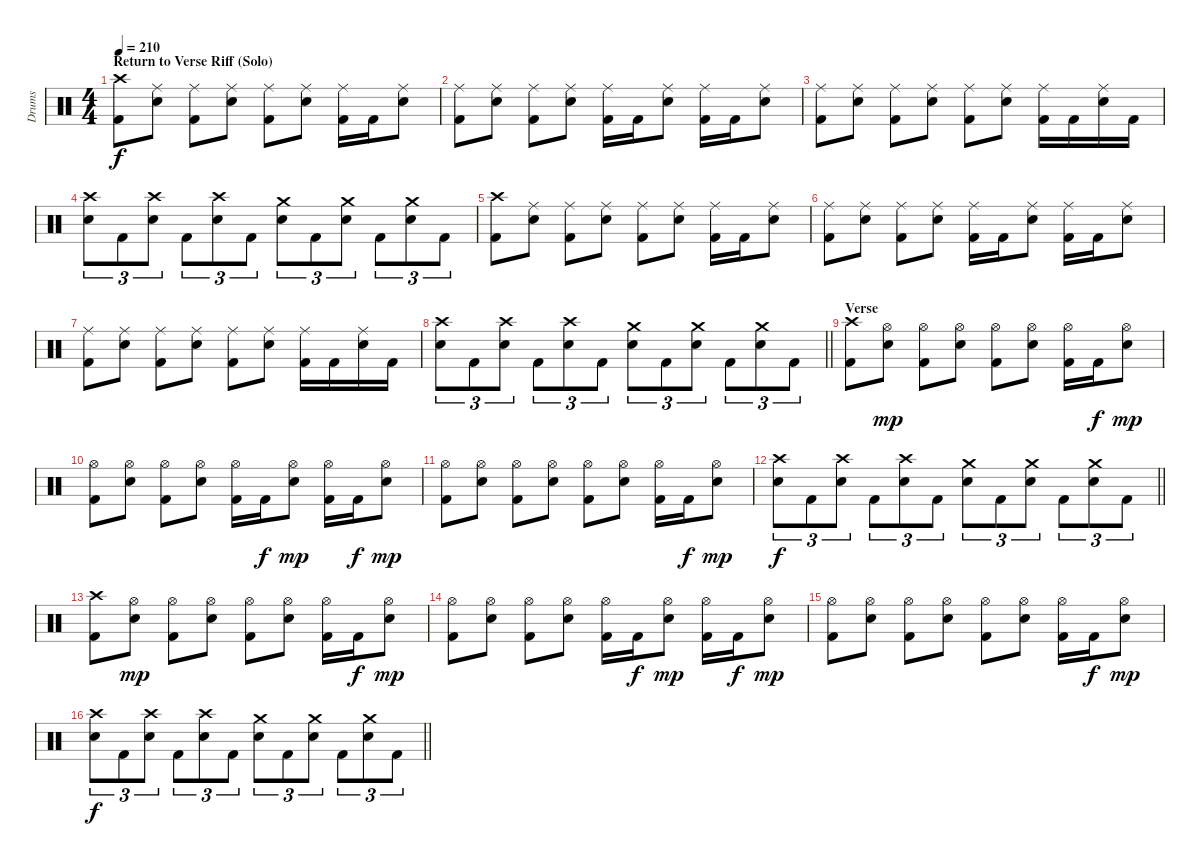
\track ("Drums" "Drums") {instrument percussion}
\staff {score}
\articulation defaults
\ts (4 4)
\section ("" "Return to Verse Riff (Solo)")
\tempo 210
\clef neutral
\ks c
("Crash high (hit)" "Kick (hit) 2").8{dy f} ("Ride (middle)" "Snare (hit) 2").8 ("Ride (middle)" "Kick (hit) 2").8 ("Ride (middle)" "Snare (hit) 2").8 ("Ride (middle)" "Kick (hit) 2").8 ("Ride (middle)" "Snare (hit) 2").8 ("Ride (middle)" "Kick (hit) 2").16 "Kick (hit) 2".16 ("Ride (middle)" "Snare (hit) 2").8 |
("Ride (middle)" "Kick (hit) 2").8 ("Ride (middle)" "Snare (hit) 2").8 ("Ride (middle)" "Kick (hit) 2").8 ("Ride (middle)" "Snare (hit) 2").8 ("Ride (middle)" "Kick (hit) 2").16 "Kick (hit) 2".16 ("Ride (middle)" "Snare (hit) 2").8 ("Ride (middle)" "Kick (hit) 2").16 "Kick (hit) 2".16 ("Ride (middle)" "Snare (hit) 2").8 |
("Ride (middle)" "Kick (hit) 2").8 ("Ride (middle)" "Snare (hit) 2").8 ("Ride (middle)" "Kick (hit) 2").8 ("Ride (middle)" "Snare (hit) 2").8 ("Ride (middle)" "Kick (hit) 2").8 ("Ride (middle)" "Snare (hit) 2").8 ("Ride (middle)" "Kick (hit) 2").16 "Kick (hit) 2".16 ("Ride (middle)" "Snare (hit) 2").16 "Kick (hit) 2".16 |
("Crash high (hit)" "Snare (hit) 2").8{tu (3 2)} "Kick (hit) 2".8{tu (3 2)} ("Crash high (hit)" "Snare (hit) 2").8{tu (3 2)} "Kick (hit) 2".8{tu (3 2)} ("Crash high (hit)" "Snare (hit) 2").8{tu (3 2)} "Kick (hit) 2".8{tu (3 2)} ("Crash medium (hit)" "Snare (hit) 2").8{tu (3 2)} "Kick (hit) 2".8{tu (3 2)} ("Crash medium (hit)" "Snare (hit) 2").8{tu (3 2)} "Kick (hit) 2".8{tu (3 2)} ("Crash medium (hit)" "Snare (hit) 2").8{tu (3 2)} "Kick (hit) 2".8{tu (3 2)} |
("Crash high (hit)" "Kick (hit) 2").8 ("Ride (middle)" "Snare (hit) 2").8 ("Ride (middle)" "Kick (hit) 2").8 ("Ride (middle)" "Snare (hit) 2").8 ("Ride (middle)" "Kick (hit) 2").8 ("Ride (middle)" "Snare (hit) 2").8 ("Ride (middle)" "Kick (hit) 2").16 "Kick (hit) 2".16 ("Ride (middle)" "Snare (hit) 2").8 |
("Ride (middle)" "Kick (hit) 2").8 ("Ride (middle)" "Snare (hit) 2").8 ("Ride (middle)" "Kick (hit) 2").8 ("Ride (middle)" "Snare (hit) 2").8 ("Ride (middle)" "Kick (hit) 2").16 "Kick (hit) 2".16 ("Ride (middle)" "Snare (hit) 2").8 ("Ride (middle)" "Kick (hit) 2").16 "Kick (hit) 2".16 ("Ride (middle)" "Snare (hit) 2").8 |
("Ride (middle)" "Kick (hit) 2").8 ("Ride (middle)" "Snare (hit) 2").8 ("Ride (middle)" "Kick (hit) 2").8 ("Ride (middle)" "Snare (hit) 2").8 ("Ride (middle)" "Kick (hit) 2").8 ("Ride (middle)" "Snare (hit) 2").8 ("Ride (middle)" "Kick (hit) 2").16 "Kick (hit) 2".16 ("Ride (middle)" "Snare (hit) 2").16 "Kick (hit) 2".16 |
\barLineRight lightlight
("Crash high (hit)" "Snare (hit) 2").8{tu (3 2)} "Kick (hit) 2".8{tu (3 2)} ("Crash high (hit)" "Snare (hit) 2").8{tu (3 2)} "Kick (hit) 2".8{tu (3 2)} ("Crash high (hit)" "Snare (hit) 2").8{tu (3 2)} "Kick (hit) 2".8{tu (3 2)} ("Crash medium (hit)" "Snare (hit) 2").8{tu (3 2)} "Kick (hit) 2".8{tu (3 2)} ("Crash medium (hit)" "Snare (hit) 2").8{tu (3 2)} "Kick (hit) 2".8{tu (3 2)} ("Crash medium (hit)" "Snare (hit) 2").8{tu (3 2)} "Kick (hit) 2".8{tu (3 2)} |
\section ("" "Verse")
("Crash high (hit)" "Kick (hit) 2").8 ("Hi-Hat (open)" "Snare (hit) 2").8{dy mp} ("Hi-Hat (open)" "Kick (hit) 2").8 ("Hi-Hat (open)" "Snare (hit) 2").8 ("Hi-Hat (open)" "Kick (hit) 2").8 ("Hi-Hat (open)" "Snare (hit) 2").8 ("Hi-Hat (open)" "Kick (hit) 2").16 "Kick (hit) 2".16{dy f} ("Hi-Hat (open)" "Snare (hit) 2").8{dy mp} |
("Hi-Hat (open)" "Kick (hit) 2").8 ("Hi-Hat (open)" "Snare (hit) 2").8 ("Hi-Hat (open)" "Kick (hit) 2").8 ("Hi-Hat (open)" "Snare (hit) 2").8 ("Hi-Hat (open)" "Kick (hit) 2").16 "Kick (hit) 2".16{dy f} ("Hi-Hat (open)" "Snare (hit) 2").8{dy mp} ("Hi-Hat (open)" "Kick (hit) 2").16 "Kick (hit) 2".16{dy f} ("Hi-Hat (open)" "Snare (hit) 2").8{dy mp} |
("Hi-Hat (open)" "Kick (hit) 2").8 ("Hi-Hat (open)" "Snare (hit) 2").8 ("Hi-Hat (open)" "Kick (hit) 2").8 ("Hi-Hat (open)" "Snare (hit) 2").8 ("Hi-Hat (open)" "Kick (hit) 2").8 ("Hi-Hat (open)" "Snare (hit) 2").8 ("Hi-Hat (open)" "Kick (hit) 2").16 "Kick (hit) 2".16{dy f} ("Hi-Hat (open)" "Snare (hit) 2").8{dy mp} |
\barLineRight lightlight
("Crash high (hit)" "Snare (hit) 2").8{tu (3 2) dy f} "Kick (hit) 2".8{tu (3 2)} ("Crash high (hit)" "Snare (hit) 2").8{tu (3 2)} "Kick (hit) 2".8{tu (3 2)} ("Crash high (hit)" "Snare (hit) 2").8{tu (3 2)} "Kick (hit) 2".8{tu (3 2)} ("Crash medium (hit)" "Snare (hit) 2").8{tu (3 2)} "Kick (hit) 2".8{tu (3 2)} ("Crash medium (hit)" "Snare (hit) 2").8{tu (3 2)} "Kick (hit) 2".8{tu (3 2)} ("Crash medium (hit)" "Snare (hit) 2").8{tu (3 2)} "Kick (hit) 2".8{tu (3 2)} |
("Crash high (hit)" "Kick (hit) 2").8 ("Hi-Hat (open)" "Snare (hit) 2").8{dy mp} ("Hi-Hat (open)" "Kick (hit) 2").8 ("Hi-Hat (open)" "Snare (hit) 2").8 ("Hi-Hat (open)" "Kick (hit) 2").8 ("Hi-Hat (open)" "Snare (hit) 2").8 ("Hi-Hat (open)" "Kick (hit) 2").16 "Kick (hit) 2".16{dy f} ("Hi-Hat (open)" "Snare (hit) 2").8{dy mp} |
("Hi-Hat (open)" "Kick (hit) 2").8 ("Hi-Hat (open)" "Snare (hit) 2").8 ("Hi-Hat (open)" "Kick (hit) 2").8 ("Hi-Hat (open)" "Snare (hit) 2").8 ("Hi-Hat (open)" "Kick (hit) 2").16 "Kick (hit) 2".16{dy f} ("Hi-Hat (open)" "Snare (hit) 2").8{dy mp} ("Hi-Hat (open)" "Kick (hit) 2").16 "Kick (hit) 2".16{dy f} ("Hi-Hat (open)" "Snare (hit) 2").8{dy mp} |
("Hi-Hat (open)" "Kick (hit) 2").8 ("Hi-Hat (open)" "Snare (hit) 2").8 ("Hi-Hat (open)" "Kick (hit) 2").8 ("Hi-Hat (open)" "Snare (hit) 2").8 ("Hi-Hat (open)" "Kick (hit) 2").8 ("Hi-Hat (open)" "Snare (hit) 2").8 ("Hi-Hat (open)" "Kick (hit) 2").16 "Kick (hit) 2".16{dy f} ("Hi-Hat (open)" "Snare (hit) 2").8{dy mp} |
\barLineRight lightlight
("Crash high (hit)" "Snare (hit) 2").8{tu (3 2) dy f} "Kick (hit) 2".8{tu (3 2)} ("Crash high (hit)" "Snare (hit) 2").8{tu (3 2)} "Kick (hit) 2".8{tu (3 2)} ("Crash high (hit)" "Snare (hit) 2").8{tu (3 2)} "Kick (hit) 2".8{tu (3 2)} ("Crash medium (hit)" "Snare (hit) 2").8{tu (3 2)} "Kick (hit) 2".8{tu (3 2)} ("Crash medium (hit)" "Snare (hit) 2").8{tu (3 2)} "Kick (hit) 2".8{tu (3 2)} ("Crash medium (hit)" "Snare (hit) 2").8{tu (3 2)} "Kick (hit) 2".8{tu (3 2)}
